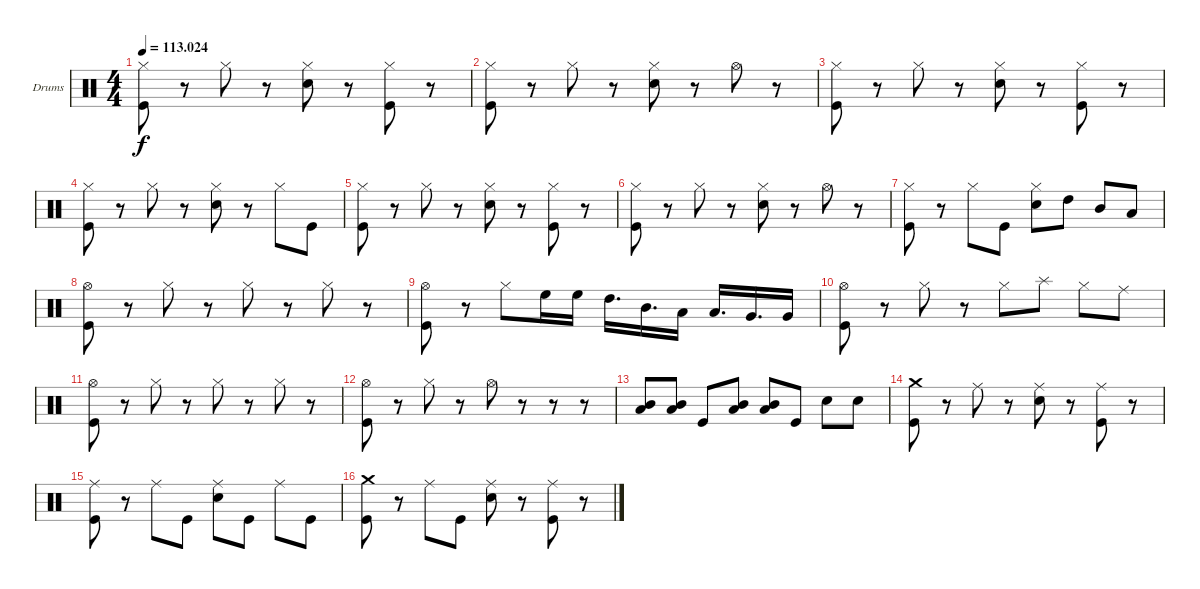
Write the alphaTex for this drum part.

\bracketExtendMode groupsimilarinstruments
\firstSystemTrackNameOrientation horizontal
\otherSystemsTrackNameOrientation horizontal
\track ("Ударные (Кривенков Д)" "Drums") {instrument percussion}
\staff {score}
\articulation defaults
\ts (4 4)
\tempo
113.024
\accidentals auto
\clef neutral
\ottava regular
\simile none
\ks c
("Hi-Hat (closed)" "Kick (hit)").8{dy f} r.8 "Hi-Hat (closed)".8 r.8 ("Hi-Hat (closed)" "Snare (hit) 2").8 r.8 ("Hi-Hat (closed)" "Kick (hit)").8 r.8 |
("Hi-Hat (closed)" "Kick (hit)").8 r.8 "Hi-Hat (closed)".8 r.8 ("Hi-Hat (closed)" "Snare (hit) 2").8 r.8 "Hi-Hat (open)".8 r.8 |
("Hi-Hat (closed)" "Kick (hit)").8 r.8 "Hi-Hat (closed)".8 r.8 ("Hi-Hat (closed)" "Snare (hit) 2").8 r.8 ("Hi-Hat (closed)" "Kick (hit)").8 r.8 |
("Hi-Hat (closed)" "Kick (hit)").8 r.8 "Hi-Hat (closed)".8 r.8 ("Hi-Hat (closed)" "Snare (hit) 2").8 r.8 "Hi-Hat (closed)".8 "Kick (hit)".8 |
("Hi-Hat (closed)" "Kick (hit)").8 r.8 "Hi-Hat (closed)".8 r.8 ("Hi-Hat (closed)" "Snare (hit) 2").8 r.8 ("Hi-Hat (closed)" "Kick (hit)").8 r.8 |
("Hi-Hat (closed)" "Kick (hit)").8 r.8 "Hi-Hat (closed)".8 r.8 ("Hi-Hat (closed)" "Snare (hit) 2").8 r.8 "Hi-Hat (open)".8 r.8 |
("Hi-Hat (closed)" "Kick (hit)").8 r.8 "Hi-Hat (closed)".8 "Kick (hit)".8 ("Hi-Hat (closed)" "Snare (hit) 2").8 "High Tom (hit)".8 "Mid Tom (hit)".8 "Low Tom (hit)".8 |
("Hi-Hat (open)" "Kick (hit)").8 r.8 "Hi-Hat (closed)".8 r.8 "Hi-Hat (closed)".8 r.8 "Hi-Hat (closed)".8 r.8 |
("Hi-Hat (open)" "Kick (hit)").8 r.8 "Hi-Hat (closed)".8 "High Floor Tom (hit)".16 "High Floor Tom (hit)".16 "High Tom (hit)".16{d} "Mid Tom (hit)".16{d} "Low Tom (hit)".16 "Low Tom (hit)".16{d} "Very Low Tom (hit)".16{d} "Very Low Tom (hit)".16 |
("Hi-Hat (open)" "Kick (hit)").8 r.8 "Hi-Hat (closed)".8 r.8 "Hi-Hat (closed)".8 "Splash (hit)".8 "Hi-Hat (closed)".8 "Ride (middle)".8 |
("Hi-Hat (open)" "Kick (hit)").8 r.8 "Hi-Hat (closed)".8 r.8 "Hi-Hat (closed)".8 r.8 "Hi-Hat (closed)".8 r.8 |
("Hi-Hat (open)" "Kick (hit)").8 r.8 "Hi-Hat (closed)".8 r.8 "Hi-Hat (open)".8 r.8 r.8 r.8 |
("Mid Tom (hit)" "Low Tom (hit)").8 ("Mid Tom (hit)" "Low Tom (hit)").8 "Kick (hit)".8 ("Mid Tom (hit)" "Low Tom (hit)").8 ("Mid Tom (hit)" "Low Tom (hit)").8 "Kick (hit)".8 "Snare (hit) 2".8 "Snare (hit) 2".8 |
("Crash medium (hit)" "Kick (hit)").8 r.8 "Ride (middle)".8 r.8 ("Ride (middle)" "Snare (hit) 2").8 r.8 ("Ride (middle)" "Kick (hit)").8 r.8 |
("Ride (middle)" "Kick (hit)").8 r.8 "Ride (middle)".8 "Kick (hit)".8 ("Ride (middle)" "Snare (hit) 2").8 "Kick (hit)".8 "Ride (middle)".8 "Kick (hit)".8 |
("Crash medium (hit)" "Kick (hit)").8 r.8 "Ride (middle)".8 "Kick (hit)".8 ("Ride (middle)" "Snare (hit) 2").8 r.8 ("Ride (middle)" "Kick (hit)").8 r.8
